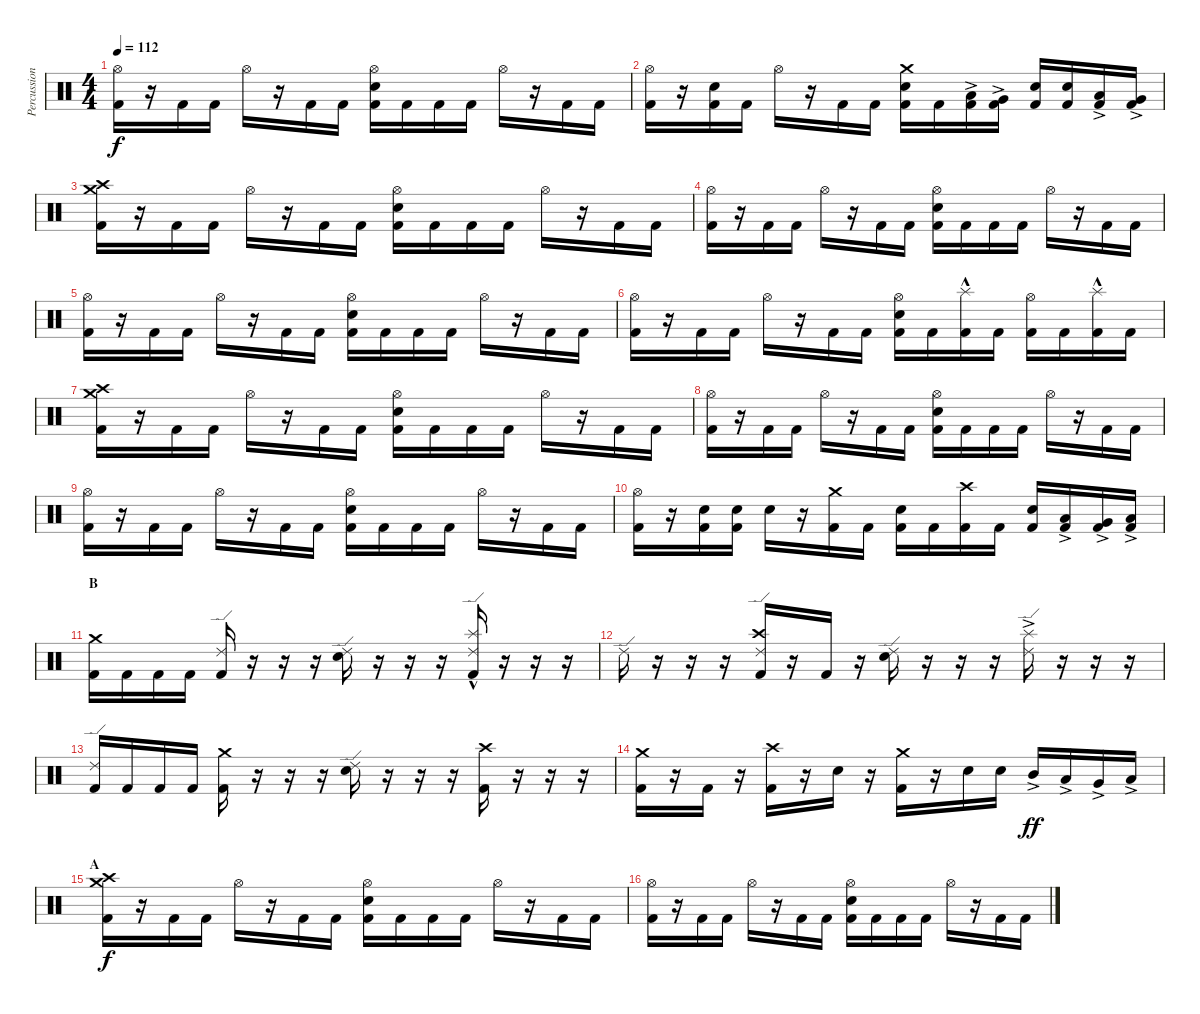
\track ("Percussion" "Percussion") {instrument percussion}
\staff {score}
\articulation defaults
\ts (4 4)
\tempo 112
\clef neutral
\ks c
("Hi-Hat (open)" "Kick (hit) 2").16{dy f} r.16 "Kick (hit) 2".16 "Kick (hit) 2".16 "Hi-Hat (open)".16 r.16 "Kick (hit) 2".16 "Kick (hit) 2".16 ("Hi-Hat (open)" "Electric Snare (hit)" "Kick (hit) 2").16 "Kick (hit) 2".16 "Kick (hit) 2".16 "Kick (hit) 2".16 "Hi-Hat (open)".16 r.16 "Kick (hit) 2".16 "Kick (hit) 2".16 |
("Hi-Hat (open)" "Kick (hit) 2").16 r.16 ("Electric Snare (hit)" "Kick (hit) 2").16 "Kick (hit) 2".16 "Hi-Hat (open)".16 r.16 "Kick (hit) 2".16 "Kick (hit) 2".16 ("Crash medium (hit)" "Electric Snare (hit)" "Kick (hit) 2").16 "Kick (hit) 2".16 ("Low Tom (hit)"{ac} "Kick (hit) 2").16 ("Very Low Tom (hit)"{ac} "Kick (hit) 2").16 ("Electric Snare (hit)" "Kick (hit) 2").16 ("Electric Snare (hit)" "Kick (hit) 2").16 ("Low Tom (hit)"{ac} "Kick (hit) 2").16 ("Very Low Tom (hit)"{ac} "Kick (hit) 2").16 |
("Crash medium (hit)" "Crash high (hit)" "Kick (hit) 2").16 r.16 "Kick (hit) 2".16 "Kick (hit) 2".16 "Hi-Hat (open)".16 r.16 "Kick (hit) 2".16 "Kick (hit) 2".16 ("Hi-Hat (open)" "Electric Snare (hit)" "Kick (hit) 2").16 "Kick (hit) 2".16 "Kick (hit) 2".16 "Kick (hit) 2".16 "Hi-Hat (open)".16 r.16 "Kick (hit) 2".16 "Kick (hit) 2".16 |
("Hi-Hat (open)" "Kick (hit) 2").16 r.16 "Kick (hit) 2".16 "Kick (hit) 2".16 "Hi-Hat (open)".16 r.16 "Kick (hit) 2".16 "Kick (hit) 2".16 ("Hi-Hat (open)" "Electric Snare (hit)" "Kick (hit) 2").16 "Kick (hit) 2".16 "Kick (hit) 2".16 "Kick (hit) 2".16 "Hi-Hat (open)".16 r.16 "Kick (hit) 2".16 "Kick (hit) 2".16 |
("Hi-Hat (open)" "Kick (hit) 2").16 r.16 "Kick (hit) 2".16 "Kick (hit) 2".16 "Hi-Hat (open)".16 r.16 "Kick (hit) 2".16 "Kick (hit) 2".16 ("Hi-Hat (open)" "Electric Snare (hit)" "Kick (hit) 2").16 "Kick (hit) 2".16 "Kick (hit) 2".16 "Kick (hit) 2".16 "Hi-Hat (open)".16 r.16 "Kick (hit) 2".16 "Kick (hit) 2".16 |
("Hi-Hat (open)" "Kick (hit) 2").16 r.16 "Kick (hit) 2".16 "Kick (hit) 2".16 "Hi-Hat (open)".16 r.16 "Kick (hit) 2".16 "Kick (hit) 2".16 ("Hi-Hat (open)" "Electric Snare (hit)" "Kick (hit) 2").16 "Kick (hit) 2".16 ("Splash (hit)"{hac} "Kick (hit) 2").16 "Kick (hit) 2".16 ("Hi-Hat (open)" "Kick (hit) 2").16 "Kick (hit) 2".16 ("Splash (hit)"{hac} "Kick (hit) 2").16 "Kick (hit) 2".16 |
("Crash medium (hit)" "Crash high (hit)" "Kick (hit) 2").16 r.16 "Kick (hit) 2".16 "Kick (hit) 2".16 "Hi-Hat (open)".16 r.16 "Kick (hit) 2".16 "Kick (hit) 2".16 ("Hi-Hat (open)" "Electric Snare (hit)" "Kick (hit) 2").16 "Kick (hit) 2".16 "Kick (hit) 2".16 "Kick (hit) 2".16 "Hi-Hat (open)".16 r.16 "Kick (hit) 2".16 "Kick (hit) 2".16 |
("Hi-Hat (open)" "Kick (hit) 2").16 r.16 "Kick (hit) 2".16 "Kick (hit) 2".16 "Hi-Hat (open)".16 r.16 "Kick (hit) 2".16 "Kick (hit) 2".16 ("Hi-Hat (open)" "Electric Snare (hit)" "Kick (hit) 2").16 "Kick (hit) 2".16 "Kick (hit) 2".16 "Kick (hit) 2".16 "Hi-Hat (open)".16 r.16 "Kick (hit) 2".16 "Kick (hit) 2".16 |
("Hi-Hat (open)" "Kick (hit) 2").16 r.16 "Kick (hit) 2".16 "Kick (hit) 2".16 "Hi-Hat (open)".16 r.16 "Kick (hit) 2".16 "Kick (hit) 2".16 ("Hi-Hat (open)" "Electric Snare (hit)" "Kick (hit) 2").16 "Kick (hit) 2".16 "Kick (hit) 2".16 "Kick (hit) 2".16 "Hi-Hat (open)".16 r.16 "Kick (hit) 2".16 "Kick (hit) 2".16 |
("Hi-Hat (open)" "Kick (hit) 2").16 r.16 ("Electric Snare (hit)" "Kick (hit) 2").16 ("Electric Snare (hit)" "Kick (hit) 2").16 "Electric Snare (hit)".16 r.16 ("Crash medium (hit)" "Kick (hit) 2").16 "Kick (hit) 2".16 ("Electric Snare (hit)" "Kick (hit) 2").16 "Kick (hit) 2".16 ("Crash high (hit)" "Kick (hit) 2").16 "Kick (hit) 2".16 ("Electric Snare (hit)" "Kick (hit) 2").16 ("Low Tom (hit)"{ac} "Kick (hit) 2").16 ("Very Low Tom (hit)"{ac} "Kick (hit) 2").16 ("Low Floor Tom (hit)"{ac} "Kick (hit) 2").16 |
\section ("" "B")
("Crash medium (hit)" "Kick (hit) 2").16 "Kick (hit) 2".16 "Kick (hit) 2".16 "Kick (hit) 2".16 ("Ride (edge) 2" "Kick (hit) 2").16 r.16 r.16 r.16 ("Ride (edge) 2" "Electric Snare (hit)").16 r.16 r.16 r.16 ("Splash (hit)"{hac} "Ride (edge) 2" "Kick (hit) 2").16 r.16 r.16 r.16 |
"Ride (edge) 2".16 r.16 r.16 r.16 ("Crash high (hit)" "Ride (edge) 2" "Kick (hit) 2").16 r.16 "Kick (hit) 2".16 r.16 ("Ride (edge) 2" "Electric Snare (hit)").16 r.16 r.16 r.16 ("Splash (hit)"{ac} "Ride (edge) 2").16 r.16 r.16 r.16 |
("Ride (edge) 2" "Kick (hit) 2").16 "Kick (hit) 2".16 "Kick (hit) 2".16 "Kick (hit) 2".16 ("Crash medium (hit)" "Kick (hit) 2").16 r.16 r.16 r.16 ("Ride (edge) 2" "Electric Snare (hit)").16 r.16 r.16 r.16 ("Crash high (hit)" "Kick (hit) 2").16 r.16 r.16 r.16 |
("Crash medium (hit)" "Kick (hit) 2").16 r.16 "Kick (hit) 2".16 r.16 ("Crash high (hit)" "Kick (hit) 2").16 r.16 "Electric Snare (hit)".16 r.16 ("Crash medium (hit)" "Kick (hit) 2").16 r.16 "Electric Snare (hit)".16 "Electric Snare (hit)".16 "Mid Tom (hit)"{ac}.16{dy ff} "Low Tom (hit)"{ac}.16 "Very Low Tom (hit)"{ac}.16 "Low Floor Tom (hit)"{ac}.16 |
\section ("" "A")
("Crash medium (hit)" "Crash high (hit)" "Kick (hit) 2").16{dy f} r.16 "Kick (hit) 2".16 "Kick (hit) 2".16 "Hi-Hat (open)".16 r.16 "Kick (hit) 2".16 "Kick (hit) 2".16 ("Hi-Hat (open)" "Electric Snare (hit)" "Kick (hit) 2").16 "Kick (hit) 2".16 "Kick (hit) 2".16 "Kick (hit) 2".16 "Hi-Hat (open)".16 r.16 "Kick (hit) 2".16 "Kick (hit) 2".16 |
("Hi-Hat (open)" "Kick (hit) 2").16 r.16 "Kick (hit) 2".16 "Kick (hit) 2".16 "Hi-Hat (open)".16 r.16 "Kick (hit) 2".16 "Kick (hit) 2".16 ("Hi-Hat (open)" "Electric Snare (hit)" "Kick (hit) 2").16 "Kick (hit) 2".16 "Kick (hit) 2".16 "Kick (hit) 2".16 "Hi-Hat (open)".16 r.16 "Kick (hit) 2".16 "Kick (hit) 2".16
